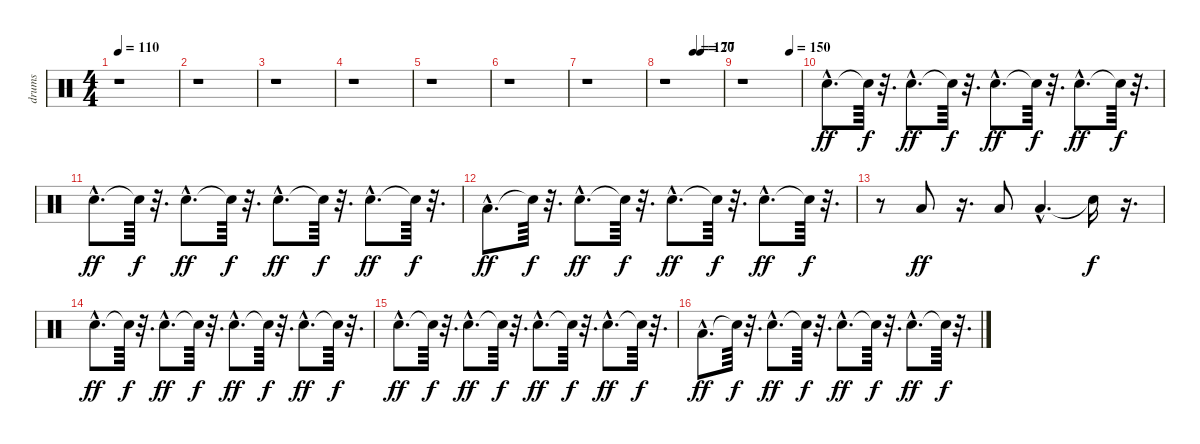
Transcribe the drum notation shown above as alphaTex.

\track ("drums" "drums") {instrument percussion}
\staff {score}
\articulation defaults
\ts (4 4)
\tempo 110
\clef neutral
\ks c
r.1{dy ff} |
r.1 |
r.1 |
r.1 |
r.1 |
r.1 |
r.1 |
\tempo (120 0.5)
\tempo (77 0.625)
r.1 |
\tempo (150 0.8125)
r.1 |
"Metronome (bell)"{hac}.8{d} "Snare (hit)"{t}.64{dy f} r.32{d} "Metronome (bell)"{hac}.8{d dy ff} "Snare (hit)"{t}.64{dy f} r.32{d} "Metronome (bell)"{hac}.8{d dy ff} "Snare (hit)"{t}.64{dy f} r.32{d} "Metronome (bell)"{hac}.8{d dy ff} "Snare (hit)"{t}.64{dy f} r.32{d} |
"Metronome (bell)"{hac}.8{d dy ff} "Snare (hit)"{t}.64{dy f} r.32{d} "Metronome (bell)"{hac}.8{d dy ff} "Snare (hit)"{t}.64{dy f} r.32{d} "Metronome (bell)"{hac}.8{d dy ff} "Snare (hit)"{t}.64{dy f} r.32{d} "Metronome (bell)"{hac}.8{d dy ff} "Snare (hit)"{t}.64{dy f} r.32{d} |
"Low Tom (hit)"{hac}.8{d dy ff} "Snare (hit)"{t}.64{dy f} r.32{d} "Metronome (bell)"{hac}.8{d dy ff} "Snare (hit)"{t}.64{dy f} r.32{d} "Metronome (bell)"{hac}.8{d dy ff} "Snare (hit)"{t}.64{dy f} r.32{d} "Metronome (bell)"{hac}.8{d dy ff} "Snare (hit)"{t}.64{dy f} r.32{d} |
r.8 "Low Tom (hit)".8{dy ff} r.16{d} "Low Tom (hit)".8 "Low Tom (hit)"{hac}.4{d} "Snare (hit)"{t}.16{dy f} r.16{d} |
"Metronome (bell)"{hac}.8{d dy ff} "Snare (hit)"{t}.64{dy f} r.32{d} "Metronome (bell)"{hac}.8{d dy ff} "Snare (hit)"{t}.64{dy f} r.32{d} "Metronome (bell)"{hac}.8{d dy ff} "Snare (hit)"{t}.64{dy f} r.32{d} "Metronome (bell)"{hac}.8{d dy ff} "Snare (hit)"{t}.64{dy f} r.32{d} |
"Metronome (bell)"{hac}.8{d dy ff} "Snare (hit)"{t}.64{dy f} r.32{d} "Metronome (bell)"{hac}.8{d dy ff} "Snare (hit)"{t}.64{dy f} r.32{d} "Metronome (bell)"{hac}.8{d dy ff} "Snare (hit)"{t}.64{dy f} r.32{d} "Metronome (bell)"{hac}.8{d dy ff} "Snare (hit)"{t}.64{dy f} r.32{d} |
"Low Tom (hit)"{hac}.8{d dy ff} "Snare (hit)"{t}.64{dy f} r.32{d} "Metronome (bell)"{hac}.8{d dy ff} "Snare (hit)"{t}.64{dy f} r.32{d} "Metronome (bell)"{hac}.8{d dy ff} "Snare (hit)"{t}.64{dy f} r.32{d} "Metronome (bell)"{hac}.8{d dy ff} "Snare (hit)"{t}.64{dy f} r.32{d}
